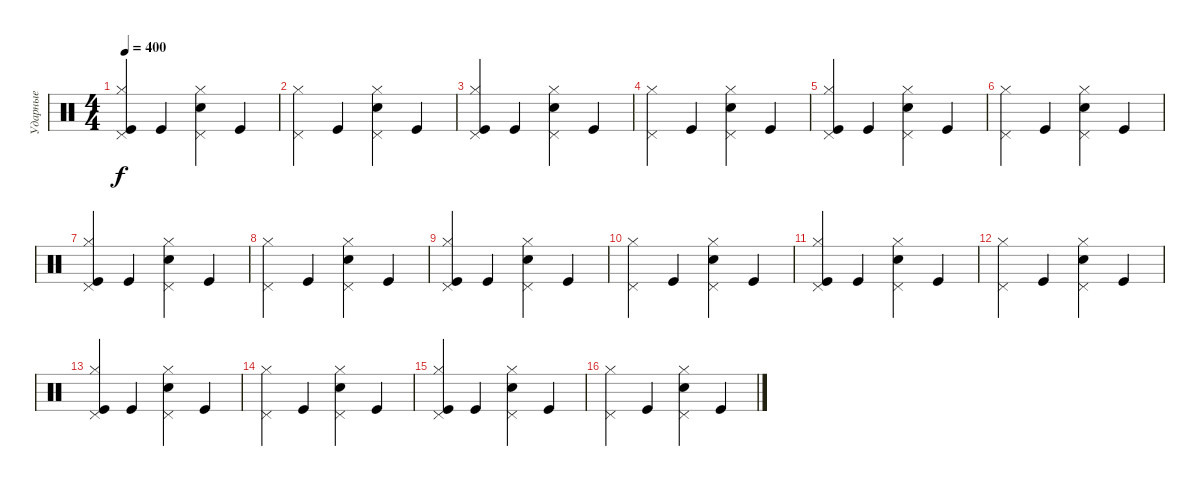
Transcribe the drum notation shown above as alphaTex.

\track ("Ударные" "Ударные") {instrument percussion}
\staff {score}
\articulation defaults
\ts (4 4)
\tempo 400
\clef neutral
\ks c
("Kick (hit)" "Hi-Hat (closed)" "Pedal Hi-Hat (hit)").4{dy f} "Kick (hit)".4 ("Electric Snare (hit)" "Pedal Hi-Hat (hit)" "Hi-Hat (closed)").4 "Kick (hit)".4 |
("Hi-Hat (closed)" "Pedal Hi-Hat (hit)").4 "Kick (hit)".4 ("Electric Snare (hit)" "Pedal Hi-Hat (hit)" "Hi-Hat (closed)").4 "Kick (hit)".4 |
("Kick (hit)" "Hi-Hat (closed)" "Pedal Hi-Hat (hit)").4 "Kick (hit)".4 ("Electric Snare (hit)" "Pedal Hi-Hat (hit)" "Hi-Hat (closed)").4 "Kick (hit)".4 |
("Hi-Hat (closed)" "Pedal Hi-Hat (hit)").4 "Kick (hit)".4 ("Electric Snare (hit)" "Pedal Hi-Hat (hit)" "Hi-Hat (closed)").4 "Kick (hit)".4 |
("Kick (hit)" "Hi-Hat (closed)" "Pedal Hi-Hat (hit)").4 "Kick (hit)".4 ("Electric Snare (hit)" "Pedal Hi-Hat (hit)" "Hi-Hat (closed)").4 "Kick (hit)".4 |
("Hi-Hat (closed)" "Pedal Hi-Hat (hit)").4 "Kick (hit)".4 ("Pedal Hi-Hat (hit)" "Hi-Hat (closed)" "Electric Snare (hit)").4 "Kick (hit)".4 |
("Kick (hit)" "Hi-Hat (closed)" "Pedal Hi-Hat (hit)").4 "Kick (hit)".4 ("Electric Snare (hit)" "Pedal Hi-Hat (hit)" "Hi-Hat (closed)").4 "Kick (hit)".4 |
("Hi-Hat (closed)" "Pedal Hi-Hat (hit)").4 "Kick (hit)".4 ("Electric Snare (hit)" "Pedal Hi-Hat (hit)" "Hi-Hat (closed)").4 "Kick (hit)".4 |
("Kick (hit)" "Hi-Hat (closed)" "Pedal Hi-Hat (hit)").4 "Kick (hit)".4 ("Electric Snare (hit)" "Pedal Hi-Hat (hit)" "Hi-Hat (closed)").4 "Kick (hit)".4 |
("Hi-Hat (closed)" "Pedal Hi-Hat (hit)").4 "Kick (hit)".4 ("Electric Snare (hit)" "Pedal Hi-Hat (hit)" "Hi-Hat (closed)").4 "Kick (hit)".4 |
("Kick (hit)" "Hi-Hat (closed)" "Pedal Hi-Hat (hit)").4 "Kick (hit)".4 ("Electric Snare (hit)" "Pedal Hi-Hat (hit)" "Hi-Hat (closed)").4 "Kick (hit)".4 |
("Hi-Hat (closed)" "Pedal Hi-Hat (hit)").4 "Kick (hit)".4 ("Electric Snare (hit)" "Pedal Hi-Hat (hit)" "Hi-Hat (closed)").4 "Kick (hit)".4 |
("Kick (hit)" "Hi-Hat (closed)" "Pedal Hi-Hat (hit)").4 "Kick (hit)".4 ("Electric Snare (hit)" "Pedal Hi-Hat (hit)" "Hi-Hat (closed)").4 "Kick (hit)".4 |
("Pedal Hi-Hat (hit)" "Hi-Hat (closed)").4 "Kick (hit)".4 ("Electric Snare (hit)" "Hi-Hat (closed)" "Pedal Hi-Hat (hit)").4 "Kick (hit)".4 |
("Kick (hit)" "Pedal Hi-Hat (hit)" "Hi-Hat (closed)").4 "Kick (hit)".4 ("Electric Snare (hit)" "Hi-Hat (closed)" "Pedal Hi-Hat (hit)").4 "Kick (hit)".4 |
("Hi-Hat (closed)" "Pedal Hi-Hat (hit)").4 "Kick (hit)".4 ("Electric Snare (hit)" "Pedal Hi-Hat (hit)" "Hi-Hat (closed)").4 "Kick (hit)".4
